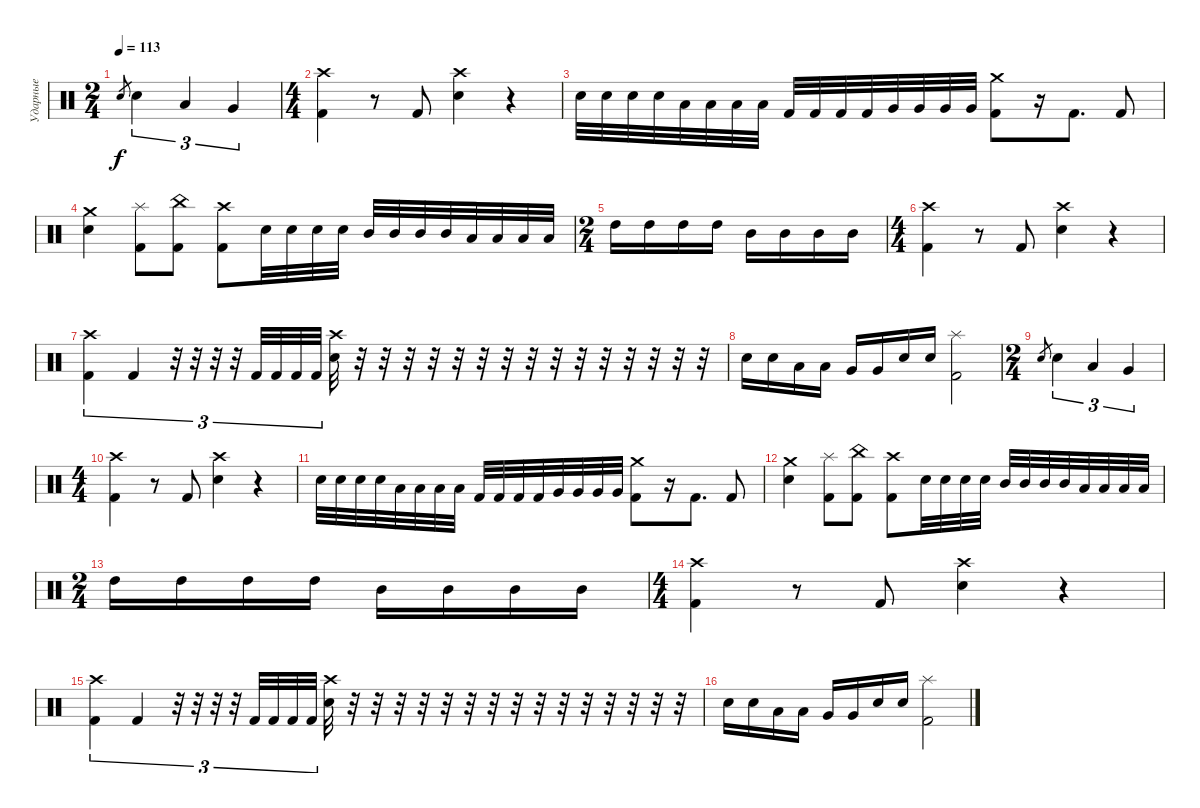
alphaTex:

\track ("Ударные" "Ударные") {instrument percussion}
\staff {score}
\articulation defaults
\ts (2 4)
\tempo 113
\clef neutral
\ks c "Electric Snare (hit)".8{gr dy f} "Electric Snare (hit)".4{tu (3 2)} "Low Tom (hit)".4{tu (3 2)} "Very Low Tom (hit)".4{tu (3 2)}
|
\ts (4 4)
("Crash high (hit)" "Kick (hit) 2").4 r.8 "Kick (hit) 2".8 ("Crash high (hit)" "Electric Snare (hit)").4 r.4 |
"Electric Snare (hit)".32 "Electric Snare (hit)".32 "Electric Snare (hit)".32 "Electric Snare (hit)".32 "Low Tom (hit)".32 "Low Tom (hit)".32 "Low Tom (hit)".32 "Low Tom (hit)".32 "Kick (hit) 2".32 "Kick (hit) 2".32 "Kick (hit) 2".32 "Kick (hit) 2".32 "Very Low Tom (hit)".32 "Very Low Tom (hit)".32 "Very Low Tom (hit)".32 "Very Low Tom (hit)".32 ("Crash medium (hit)" "Kick (hit) 2").8 r.16 "Kick (hit) 2".8{d} "Kick (hit) 2".8 |
("Crash medium (hit)" "Electric Snare (hit)").4 ("Splash (hit)" "Kick (hit) 2").8 ("China (hit)" "Kick (hit) 2").8 ("Crash high (hit)" "Kick (hit) 2").8 "Electric Snare (hit)".32 "Electric Snare (hit)".32 "Electric Snare (hit)".32 "Electric Snare (hit)".32 "Mid Tom (hit)".32 "Mid Tom (hit)".32 "Mid Tom (hit)".32 "Mid Tom (hit)".32 "Low Tom (hit)".32 "Low Tom (hit)".32 "Low Tom (hit)".32 "Low Tom (hit)".32 |
\ts (2 4)
"High Tom (hit)".16 "High Tom (hit)".16 "High Tom (hit)".16 "High Tom (hit)".16 "Mid Tom (hit)".16 "Mid Tom (hit)".16 "Mid Tom (hit)".16 "Mid Tom (hit)".16 |
\ts (4 4)
("Crash high (hit)" "Kick (hit) 2").4 r.8 "Kick (hit) 2".8 ("Crash high (hit)" "Electric Snare (hit)").4 r.4 |
("Crash high (hit)" "Kick (hit) 2").4{tu (3 2)} "Kick (hit) 2".4{tu (3 2)} r.32{tu (3 2)} r.32{tu (3 2)} r.32{tu (3 2)} r.32{tu (3 2)} "Kick (hit) 2".32{tu (3 2)} "Kick (hit) 2".32{tu (3 2)} "Kick (hit) 2".32{tu (3 2)} "Kick (hit) 2".32{tu (3 2)} ("Crash high (hit)" "Electric Snare (hit)").32 r.32 r.32 r.32 r.32 r.32 r.32 r.32 r.32 r.32 r.32 r.32 r.32 r.32 r.32 r.32 |
"Electric Snare (hit)".16 "Electric Snare (hit)".16 "Low Tom (hit)".16 "Low Tom (hit)".16 "Very Low Tom (hit)".16 "Very Low Tom (hit)".16 "Electric Snare (hit)".16 "Electric Snare (hit)".16 ("Splash (hit)" "Kick (hit) 2").2 |
\ts (2 4)
"Electric Snare (hit)".8{gr} "Electric Snare (hit)".4{tu (3 2)} "Low Tom (hit)".4{tu (3 2)} "Very Low Tom (hit)".4{tu (3 2)} |
\ts (4 4)
("Crash high (hit)" "Kick (hit) 2").4 r.8 "Kick (hit) 2".8 ("Crash high (hit)" "Electric Snare (hit)").4 r.4 |
"Electric Snare (hit)".32 "Electric Snare (hit)".32 "Electric Snare (hit)".32 "Electric Snare (hit)".32 "Low Tom (hit)".32 "Low Tom (hit)".32 "Low Tom (hit)".32 "Low Tom (hit)".32 "Kick (hit) 2".32 "Kick (hit) 2".32 "Kick (hit) 2".32 "Kick (hit) 2".32 "Very Low Tom (hit)".32 "Very Low Tom (hit)".32 "Very Low Tom (hit)".32 "Very Low Tom (hit)".32 ("Crash medium (hit)" "Kick (hit) 2").8 r.16 "Kick (hit) 2".8{d} "Kick (hit) 2".8 |
("Crash medium (hit)" "Electric Snare (hit)").4 ("Splash (hit)" "Kick (hit) 2").8 ("China (hit)" "Kick (hit) 2").8 ("Crash high (hit)" "Kick (hit) 2").8 "Electric Snare (hit)".32 "Electric Snare (hit)".32 "Electric Snare (hit)".32 "Electric Snare (hit)".32 "Mid Tom (hit)".32 "Mid Tom (hit)".32 "Mid Tom (hit)".32 "Mid Tom (hit)".32 "Low Tom (hit)".32 "Low Tom (hit)".32 "Low Tom (hit)".32 "Low Tom (hit)".32 |
\ts (2 4)
"High Tom (hit)".16 "High Tom (hit)".16 "High Tom (hit)".16 "High Tom (hit)".16 "Mid Tom (hit)".16 "Mid Tom (hit)".16 "Mid Tom (hit)".16 "Mid Tom (hit)".16 |
\ts (4 4)
("Crash high (hit)" "Kick (hit) 2").4 r.8 "Kick (hit) 2".8 ("Crash high (hit)" "Electric Snare (hit)").4 r.4 |
("Crash high (hit)" "Kick (hit) 2").4{tu (3 2)} "Kick (hit) 2".4{tu (3 2)} r.32{tu (3 2)} r.32{tu (3 2)} r.32{tu (3 2)} r.32{tu (3 2)} "Kick (hit) 2".32{tu (3 2)} "Kick (hit) 2".32{tu (3 2)} "Kick (hit) 2".32{tu (3 2)} "Kick (hit) 2".32{tu (3 2)} ("Crash high (hit)" "Electric Snare (hit)").32 r.32 r.32 r.32 r.32 r.32 r.32 r.32 r.32 r.32 r.32 r.32 r.32 r.32 r.32 r.32 |
"Electric Snare (hit)".16 "Electric Snare (hit)".16 "Low Tom (hit)".16 "Low Tom (hit)".16 "Very Low Tom (hit)".16 "Very Low Tom (hit)".16 "Electric Snare (hit)".16 "Electric Snare (hit)".16 ("Splash (hit)" "Kick (hit) 2").2
